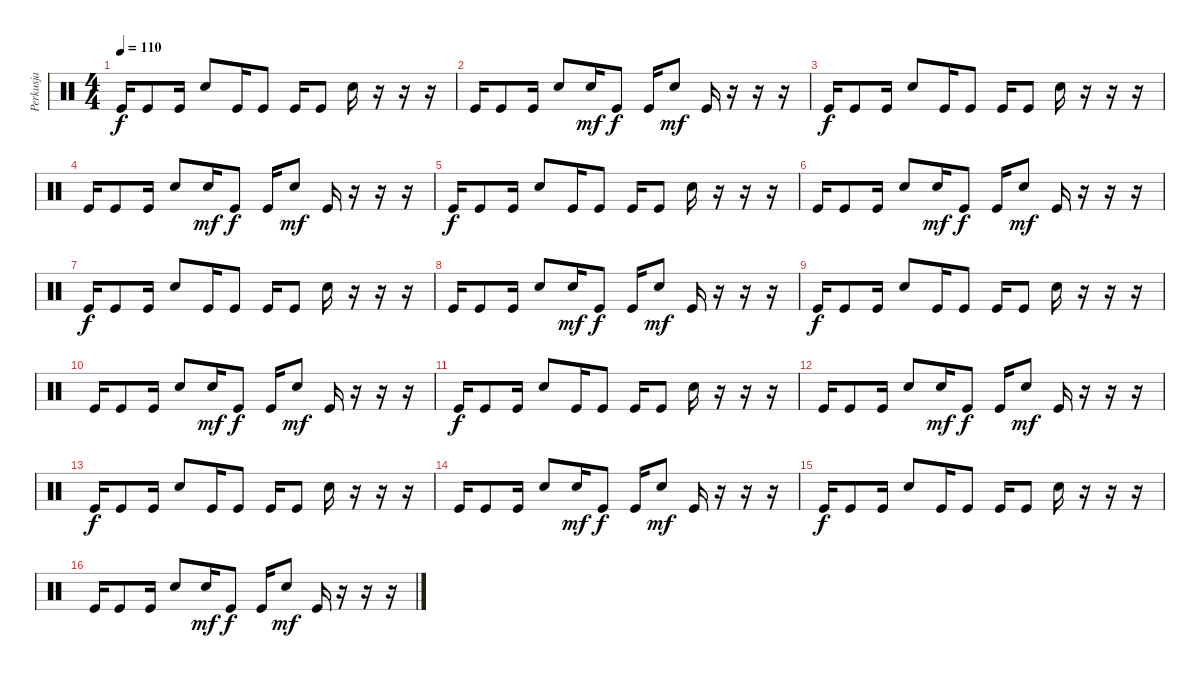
\track ("Perkusja" "Perkusja") {instrument percussion}
\staff {score}
\articulation defaults
\ts (4 4)
\tempo 110
\clef neutral
\ks c "Kick (hit)".16{dy f} "Kick (hit)".8 "Kick (hit)".16 "Electric Snare (hit)".8 "Kick (hit)".16 "Kick (hit)".8 "Kick (hit)".16 "Kick (hit)".8 "Electric Snare (hit)".16
r.16 r.16 r.16 |
"Kick (hit)".16 "Kick (hit)".8 "Kick (hit)".16 "Electric Snare (hit)".8 "Electric Snare (hit)".16{dy mf} "Kick (hit)".8{dy f} "Kick (hit)".16 "Electric Snare (hit)".8{dy mf} "Kick (hit)".16 r.16 r.16 r.16 |
"Kick (hit)".16{dy f} "Kick (hit)".8 "Kick (hit)".16 "Electric Snare (hit)".8 "Kick (hit)".16 "Kick (hit)".8 "Kick (hit)".16 "Kick (hit)".8 "Electric Snare (hit)".16 r.16 r.16 r.16 |
"Kick (hit)".16 "Kick (hit)".8 "Kick (hit)".16 "Electric Snare (hit)".8 "Electric Snare (hit)".16{dy mf} "Kick (hit)".8{dy f} "Kick (hit)".16 "Electric Snare (hit)".8{dy mf} "Kick (hit)".16 r.16 r.16 r.16 |
"Kick (hit)".16{dy f} "Kick (hit)".8 "Kick (hit)".16 "Electric Snare (hit)".8 "Kick (hit)".16 "Kick (hit)".8 "Kick (hit)".16 "Kick (hit)".8 "Electric Snare (hit)".16 r.16 r.16 r.16 |
"Kick (hit)".16 "Kick (hit)".8 "Kick (hit)".16 "Electric Snare (hit)".8 "Electric Snare (hit)".16{dy mf} "Kick (hit)".8{dy f} "Kick (hit)".16 "Electric Snare (hit)".8{dy mf} "Kick (hit)".16 r.16 r.16 r.16 |
"Kick (hit)".16{dy f} "Kick (hit)".8 "Kick (hit)".16 "Electric Snare (hit)".8 "Kick (hit)".16 "Kick (hit)".8 "Kick (hit)".16 "Kick (hit)".8 "Electric Snare (hit)".16 r.16 r.16 r.16 |
"Kick (hit)".16 "Kick (hit)".8 "Kick (hit)".16 "Electric Snare (hit)".8 "Electric Snare (hit)".16{dy mf} "Kick (hit)".8{dy f} "Kick (hit)".16 "Electric Snare (hit)".8{dy mf} "Kick (hit)".16 r.16 r.16 r.16 |
"Kick (hit)".16{dy f} "Kick (hit)".8 "Kick (hit)".16 "Electric Snare (hit)".8 "Kick (hit)".16 "Kick (hit)".8 "Kick (hit)".16 "Kick (hit)".8 "Electric Snare (hit)".16 r.16 r.16 r.16 |
"Kick (hit)".16 "Kick (hit)".8 "Kick (hit)".16 "Electric Snare (hit)".8 "Electric Snare (hit)".16{dy mf} "Kick (hit)".8{dy f} "Kick (hit)".16 "Electric Snare (hit)".8{dy mf} "Kick (hit)".16 r.16 r.16 r.16 |
"Kick (hit)".16{dy f} "Kick (hit)".8 "Kick (hit)".16 "Electric Snare (hit)".8 "Kick (hit)".16 "Kick (hit)".8 "Kick (hit)".16 "Kick (hit)".8 "Electric Snare (hit)".16 r.16 r.16 r.16 |
"Kick (hit)".16 "Kick (hit)".8 "Kick (hit)".16 "Electric Snare (hit)".8 "Electric Snare (hit)".16{dy mf} "Kick (hit)".8{dy f} "Kick (hit)".16 "Electric Snare (hit)".8{dy mf} "Kick (hit)".16 r.16 r.16 r.16 |
"Kick (hit)".16{dy f} "Kick (hit)".8 "Kick (hit)".16 "Electric Snare (hit)".8 "Kick (hit)".16 "Kick (hit)".8 "Kick (hit)".16 "Kick (hit)".8 "Electric Snare (hit)".16 r.16 r.16 r.16 |
"Kick (hit)".16 "Kick (hit)".8 "Kick (hit)".16 "Electric Snare (hit)".8 "Electric Snare (hit)".16{dy mf} "Kick (hit)".8{dy f} "Kick (hit)".16 "Electric Snare (hit)".8{dy mf} "Kick (hit)".16 r.16 r.16 r.16 |
"Kick (hit)".16{dy f} "Kick (hit)".8 "Kick (hit)".16 "Electric Snare (hit)".8 "Kick (hit)".16 "Kick (hit)".8 "Kick (hit)".16 "Kick (hit)".8 "Electric Snare (hit)".16 r.16 r.16 r.16 |
"Kick (hit)".16 "Kick (hit)".8 "Kick (hit)".16 "Electric Snare (hit)".8 "Electric Snare (hit)".16{dy mf} "Kick (hit)".8{dy f} "Kick (hit)".16 "Electric Snare (hit)".8{dy mf} "Kick (hit)".16 r.16 r.16 r.16
